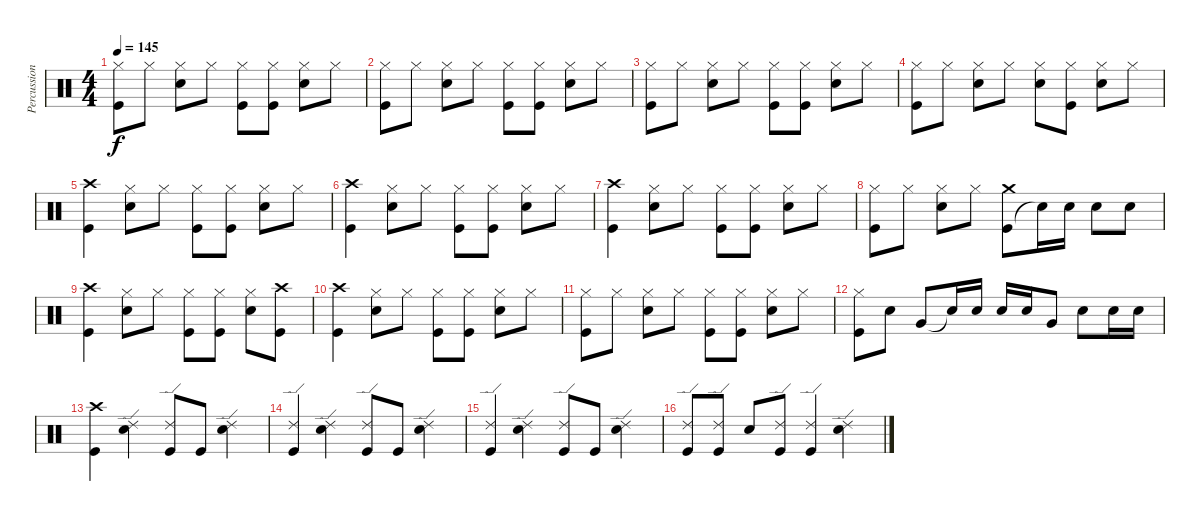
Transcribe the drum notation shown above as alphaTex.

\track ("Percussion" "Percussion") {instrument percussion}
\staff {score}
\articulation defaults
\ts (4 4)
\tempo 145
\clef neutral
\ks c
("Kick (hit)" "Hi-Hat (closed)").8{dy f} "Hi-Hat (closed)".8 ("Hi-Hat (closed)" "Snare (hit) 2").8 "Hi-Hat (closed)".8 ("Kick (hit)" "Hi-Hat (closed)").8 ("Kick (hit)" "Hi-Hat (closed)").8 ("Hi-Hat (closed)" "Snare (hit) 2").8 "Hi-Hat (closed)".8 |
("Kick (hit)" "Hi-Hat (closed)").8 "Hi-Hat (closed)".8 ("Hi-Hat (closed)" "Snare (hit) 2").8 "Hi-Hat (closed)".8 ("Kick (hit)" "Hi-Hat (closed)").8 ("Kick (hit)" "Hi-Hat (closed)").8 ("Hi-Hat (closed)" "Snare (hit) 2").8 "Hi-Hat (closed)".8 |
("Kick (hit)" "Hi-Hat (closed)").8 "Hi-Hat (closed)".8 ("Hi-Hat (closed)" "Snare (hit) 2").8 "Hi-Hat (closed)".8 ("Kick (hit)" "Hi-Hat (closed)").8 ("Kick (hit)" "Hi-Hat (closed)").8 ("Hi-Hat (closed)" "Snare (hit) 2").8 "Hi-Hat (closed)".8 |
("Kick (hit)" "Hi-Hat (closed)").8 "Hi-Hat (closed)".8 ("Hi-Hat (closed)" "Snare (hit) 2").8 "Hi-Hat (closed)".8 ("Hi-Hat (closed)" "Snare (hit) 2").8 ("Kick (hit)" "Hi-Hat (closed)").8 ("Hi-Hat (closed)" "Snare (hit) 2").8 "Hi-Hat (closed)".8 |
("Kick (hit)" "Crash high (hit)").4 ("Hi-Hat (closed)" "Snare (hit) 2").8 "Hi-Hat (closed)".8 ("Kick (hit)" "Hi-Hat (closed)").8 ("Kick (hit)" "Hi-Hat (closed)").8 ("Hi-Hat (closed)" "Snare (hit) 2").8 "Hi-Hat (closed)".8 |
("Kick (hit)" "Crash high (hit)").4 ("Hi-Hat (closed)" "Snare (hit) 2").8 "Hi-Hat (closed)".8 ("Kick (hit)" "Hi-Hat (closed)").8 ("Kick (hit)" "Hi-Hat (closed)").8 ("Hi-Hat (closed)" "Snare (hit) 2").8 "Hi-Hat (closed)".8 |
("Kick (hit)" "Crash high (hit)").4 ("Hi-Hat (closed)" "Snare (hit) 2").8 "Hi-Hat (closed)".8 ("Kick (hit)" "Hi-Hat (closed)").8 ("Kick (hit)" "Hi-Hat (closed)").8 ("Hi-Hat (closed)" "Snare (hit) 2").8 "Hi-Hat (closed)".8 |
("Kick (hit)" "Hi-Hat (closed)").8 "Hi-Hat (closed)".8 ("Hi-Hat (closed)" "Snare (hit) 2").8 "Hi-Hat (closed)".8 ("Kick (hit)" "Crash medium (hit)").8 "Snare (hit)"{t}.16 "Snare (hit) 2".16 "Snare (hit) 2".8 "Snare (hit) 2".8 |
("Kick (hit)" "Crash high (hit)").4 ("Hi-Hat (closed)" "Snare (hit) 2").8 "Hi-Hat (closed)".8 ("Kick (hit)" "Hi-Hat (closed)").8 ("Kick (hit)" "Hi-Hat (closed)").8 ("Hi-Hat (closed)" "Snare (hit) 2").8 ("Kick (hit)" "Crash high (hit)").8 |
("Kick (hit)" "Crash high (hit)").4 ("Hi-Hat (closed)" "Snare (hit) 2").8 "Hi-Hat (closed)".8 ("Kick (hit)" "Hi-Hat (closed)").8 ("Kick (hit)" "Hi-Hat (closed)").8 ("Hi-Hat (closed)" "Snare (hit) 2").8 "Hi-Hat (closed)".8 |
("Kick (hit)" "Hi-Hat (closed)").8 "Hi-Hat (closed)".8 ("Hi-Hat (closed)" "Snare (hit) 2").8 "Hi-Hat (closed)".8 ("Kick (hit)" "Hi-Hat (closed)").8 ("Kick (hit)" "Hi-Hat (closed)").8 ("Hi-Hat (closed)" "Snare (hit) 2").8 "Hi-Hat (closed)".8 |
("Kick (hit)" "Hi-Hat (closed)").8 "Snare (hit) 2".8 "Very Low Tom (hit)".8 "Snare (hit)"{t}.16 "Snare (hit) 2".16 "Snare (hit) 2".16 "Snare (hit) 2".16 "Very Low Tom (hit)".8 "Snare (hit) 2".8 "Snare (hit) 2".16 "Snare (hit) 2".16 |
("Kick (hit)" "Crash high (hit)").4 ("Ride (edge) 2" "Snare (hit) 2").4 ("Kick (hit)" "Ride (edge) 2").8 "Kick (hit)".8 ("Ride (edge) 2" "Snare (hit) 2").4 |
("Kick (hit)" "Ride (edge) 2").4 ("Ride (edge) 2" "Snare (hit) 2").4 ("Kick (hit)" "Ride (edge) 2").8 "Kick (hit)".8 ("Ride (edge) 2" "Snare (hit) 2").4 |
("Kick (hit)" "Ride (edge) 2").4 ("Ride (edge) 2" "Snare (hit) 2").4 ("Kick (hit)" "Ride (edge) 2").8 "Kick (hit)".8 ("Ride (edge) 2" "Snare (hit) 2").4 |
("Kick (hit)" "Ride (edge) 2").8 ("Kick (hit)" "Ride (edge) 2").8 "Snare (hit) 2".8 ("Kick (hit)" "Ride (edge) 2").8 ("Kick (hit)" "Ride (edge) 2").4 ("Ride (edge) 2" "Snare (hit) 2").4
